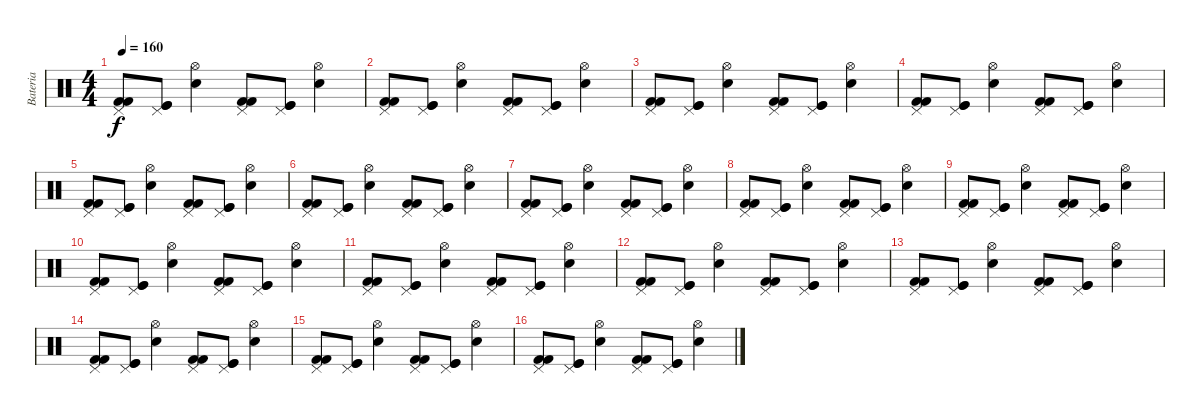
\track ("Bateria" "Bateria") {instrument percussion}
\staff {score}
\articulation defaults
\ts (4 4)
\tempo 160
\clef neutral
\ks c
("Kick (hit) 2" "Kick (hit) 2" "Pedal Hi-Hat (hit)").8{dy f} ("Kick (hit)" "Kick (hit)" "Pedal Hi-Hat (hit)").8 ("Snare (hit) 2" "Hi-Hat (open)").4 ("Kick (hit) 2" "Kick (hit) 2" "Pedal Hi-Hat (hit)").8 ("Kick (hit)" "Kick (hit)" "Pedal Hi-Hat (hit)").8 ("Snare (hit) 2" "Hi-Hat (open)").4 |
("Kick (hit) 2" "Kick (hit) 2" "Pedal Hi-Hat (hit)").8 ("Kick (hit)" "Kick (hit)" "Pedal Hi-Hat (hit)").8 ("Snare (hit) 2" "Hi-Hat (open)").4 ("Kick (hit) 2" "Kick (hit) 2" "Pedal Hi-Hat (hit)").8 ("Kick (hit)" "Kick (hit)" "Pedal Hi-Hat (hit)").8 ("Snare (hit) 2" "Hi-Hat (open)").4 |
("Kick (hit) 2" "Kick (hit) 2" "Pedal Hi-Hat (hit)").8 ("Kick (hit)" "Kick (hit)" "Pedal Hi-Hat (hit)").8 ("Snare (hit) 2" "Hi-Hat (open)").4 ("Kick (hit) 2" "Kick (hit) 2" "Pedal Hi-Hat (hit)").8 ("Kick (hit)" "Kick (hit)" "Pedal Hi-Hat (hit)").8 ("Snare (hit) 2" "Hi-Hat (open)").4 |
("Kick (hit) 2" "Kick (hit) 2" "Pedal Hi-Hat (hit)").8 ("Kick (hit)" "Kick (hit)" "Pedal Hi-Hat (hit)").8 ("Snare (hit) 2" "Hi-Hat (open)").4 ("Kick (hit) 2" "Kick (hit) 2" "Pedal Hi-Hat (hit)").8 ("Kick (hit)" "Kick (hit)" "Pedal Hi-Hat (hit)").8 ("Snare (hit) 2" "Hi-Hat (open)").4 |
("Kick (hit) 2" "Kick (hit) 2" "Pedal Hi-Hat (hit)").8 ("Kick (hit)" "Kick (hit)" "Pedal Hi-Hat (hit)").8 ("Snare (hit) 2" "Hi-Hat (open)").4 ("Kick (hit) 2" "Kick (hit) 2" "Pedal Hi-Hat (hit)").8 ("Kick (hit)" "Kick (hit)" "Pedal Hi-Hat (hit)").8 ("Snare (hit) 2" "Hi-Hat (open)").4 |
("Kick (hit) 2" "Kick (hit) 2" "Pedal Hi-Hat (hit)").8 ("Kick (hit)" "Kick (hit)" "Pedal Hi-Hat (hit)").8 ("Snare (hit) 2" "Hi-Hat (open)").4 ("Kick (hit) 2" "Kick (hit) 2" "Pedal Hi-Hat (hit)").8 ("Kick (hit)" "Kick (hit)" "Pedal Hi-Hat (hit)").8 ("Snare (hit) 2" "Hi-Hat (open)").4 |
("Kick (hit) 2" "Kick (hit) 2" "Pedal Hi-Hat (hit)").8 ("Kick (hit)" "Kick (hit)" "Pedal Hi-Hat (hit)").8 ("Snare (hit) 2" "Hi-Hat (open)").4 ("Kick (hit) 2" "Kick (hit) 2" "Pedal Hi-Hat (hit)").8 ("Kick (hit)" "Kick (hit)" "Pedal Hi-Hat (hit)").8 ("Snare (hit) 2" "Hi-Hat (open)").4 |
("Kick (hit) 2" "Kick (hit) 2" "Pedal Hi-Hat (hit)").8 ("Kick (hit)" "Kick (hit)" "Pedal Hi-Hat (hit)").8 ("Snare (hit) 2" "Hi-Hat (open)").4 ("Kick (hit) 2" "Kick (hit) 2" "Pedal Hi-Hat (hit)").8 ("Kick (hit)" "Kick (hit)" "Pedal Hi-Hat (hit)").8 ("Snare (hit) 2" "Hi-Hat (open)").4 |
("Kick (hit) 2" "Kick (hit) 2" "Pedal Hi-Hat (hit)").8 ("Kick (hit)" "Kick (hit)" "Pedal Hi-Hat (hit)").8 ("Snare (hit) 2" "Hi-Hat (open)").4 ("Kick (hit) 2" "Kick (hit) 2" "Pedal Hi-Hat (hit)").8 ("Kick (hit)" "Kick (hit)" "Pedal Hi-Hat (hit)").8 ("Snare (hit) 2" "Hi-Hat (open)").4 |
("Kick (hit) 2" "Kick (hit) 2" "Pedal Hi-Hat (hit)").8 ("Kick (hit)" "Kick (hit)" "Pedal Hi-Hat (hit)").8 ("Snare (hit) 2" "Hi-Hat (open)").4 ("Kick (hit) 2" "Kick (hit) 2" "Pedal Hi-Hat (hit)").8 ("Kick (hit)" "Kick (hit)" "Pedal Hi-Hat (hit)").8 ("Snare (hit) 2" "Hi-Hat (open)").4 |
("Kick (hit) 2" "Kick (hit) 2" "Pedal Hi-Hat (hit)").8 ("Kick (hit)" "Kick (hit)" "Pedal Hi-Hat (hit)").8 ("Snare (hit) 2" "Hi-Hat (open)").4 ("Kick (hit) 2" "Kick (hit) 2" "Pedal Hi-Hat (hit)").8 ("Kick (hit)" "Kick (hit)" "Pedal Hi-Hat (hit)").8 ("Snare (hit) 2" "Hi-Hat (open)").4 |
("Kick (hit) 2" "Kick (hit) 2" "Pedal Hi-Hat (hit)").8 ("Kick (hit)" "Kick (hit)" "Pedal Hi-Hat (hit)").8 ("Snare (hit) 2" "Hi-Hat (open)").4 ("Kick (hit) 2" "Kick (hit) 2" "Pedal Hi-Hat (hit)").8 ("Kick (hit)" "Kick (hit)" "Pedal Hi-Hat (hit)").8 ("Snare (hit) 2" "Hi-Hat (open)").4 |
("Kick (hit) 2" "Kick (hit) 2" "Pedal Hi-Hat (hit)").8 ("Kick (hit)" "Kick (hit)" "Pedal Hi-Hat (hit)").8 ("Snare (hit) 2" "Hi-Hat (open)").4 ("Kick (hit) 2" "Kick (hit) 2" "Pedal Hi-Hat (hit)").8 ("Kick (hit)" "Kick (hit)" "Pedal Hi-Hat (hit)").8 ("Snare (hit) 2" "Hi-Hat (open)").4 |
("Kick (hit) 2" "Kick (hit) 2" "Pedal Hi-Hat (hit)").8 ("Kick (hit)" "Kick (hit)" "Pedal Hi-Hat (hit)").8 ("Snare (hit) 2" "Hi-Hat (open)").4 ("Kick (hit) 2" "Kick (hit) 2" "Pedal Hi-Hat (hit)").8 ("Kick (hit)" "Kick (hit)" "Pedal Hi-Hat (hit)").8 ("Snare (hit) 2" "Hi-Hat (open)").4 |
("Kick (hit) 2" "Kick (hit) 2" "Pedal Hi-Hat (hit)").8 ("Kick (hit)" "Kick (hit)" "Pedal Hi-Hat (hit)").8 ("Snare (hit) 2" "Hi-Hat (open)").4 ("Kick (hit) 2" "Kick (hit) 2" "Pedal Hi-Hat (hit)").8 ("Kick (hit)" "Kick (hit)" "Pedal Hi-Hat (hit)").8 ("Snare (hit) 2" "Hi-Hat (open)").4 |
("Kick (hit) 2" "Kick (hit) 2" "Pedal Hi-Hat (hit)").8 ("Kick (hit)" "Kick (hit)" "Pedal Hi-Hat (hit)").8 ("Snare (hit) 2" "Hi-Hat (open)").4 ("Kick (hit) 2" "Kick (hit) 2" "Pedal Hi-Hat (hit)").8 ("Kick (hit)" "Kick (hit)" "Pedal Hi-Hat (hit)").8 ("Snare (hit) 2" "Hi-Hat (open)").4
